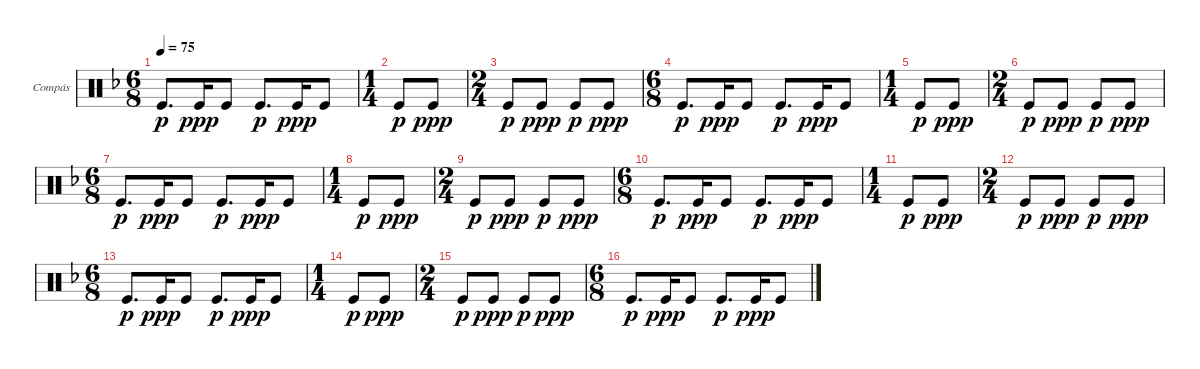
\defaultSystemsLayout 4
\bracketExtendMode groupsimilarinstruments
\firstSystemTrackNameOrientation horizontal
\otherSystemsTrackNameOrientation horizontal
\track ("Compás" "Compás") {instrument percussion}
\staff {score}
\articulation defaults
\ts (6 8)
\tempo 75
\clef neutral
\ks f "Kick (hit)".8{d dy p} "Kick (hit)".16{dy ppp} "Kick (hit)".8 "Kick (hit)".8{d dy p} "Kick (hit)".16{dy ppp} "Kick (hit)".8
|
\ts (1 4)
"Kick (hit)".8{dy p} "Kick (hit)".8{dy ppp} |
\ts (2 4)
"Kick (hit)".8{dy p} "Kick (hit)".8{dy ppp} "Kick (hit)".8{dy p} "Kick (hit)".8{dy ppp} |
\ts (6 8)
"Kick (hit)".8{d dy p} "Kick (hit)".16{dy ppp} "Kick (hit)".8 "Kick (hit)".8{d dy p} "Kick (hit)".16{dy ppp} "Kick (hit)".8 |
\ts (1 4)
"Kick (hit)".8{dy p} "Kick (hit)".8{dy ppp} |
\ts (2 4)
"Kick (hit)".8{dy p} "Kick (hit)".8{dy ppp} "Kick (hit)".8{dy p} "Kick (hit)".8{dy ppp} |
\ts (6 8)
"Kick (hit)".8{d dy p} "Kick (hit)".16{dy ppp} "Kick (hit)".8 "Kick (hit)".8{d dy p} "Kick (hit)".16{dy ppp} "Kick (hit)".8 |
\ts (1 4)
"Kick (hit)".8{dy p} "Kick (hit)".8{dy ppp} |
\ts (2 4)
"Kick (hit)".8{dy p} "Kick (hit)".8{dy ppp} "Kick (hit)".8{dy p} "Kick (hit)".8{dy ppp} |
\ts (6 8)
"Kick (hit)".8{d dy p} "Kick (hit)".16{dy ppp} "Kick (hit)".8 "Kick (hit)".8{d dy p} "Kick (hit)".16{dy ppp} "Kick (hit)".8 |
\ts (1 4)
"Kick (hit)".8{dy p} "Kick (hit)".8{dy ppp} |
\ts (2 4)
"Kick (hit)".8{dy p} "Kick (hit)".8{dy ppp} "Kick (hit)".8{dy p} "Kick (hit)".8{dy ppp} |
\ts (6 8)
"Kick (hit)".8{d dy p} "Kick (hit)".16{dy ppp} "Kick (hit)".8 "Kick (hit)".8{d dy p} "Kick (hit)".16{dy ppp} "Kick (hit)".8 |
\ts (1 4)
"Kick (hit)".8{dy p} "Kick (hit)".8{dy ppp} |
\ts (2 4)
"Kick (hit)".8{dy p} "Kick (hit)".8{dy ppp} "Kick (hit)".8{dy p} "Kick (hit)".8{dy ppp} |
\ts (6 8)
"Kick (hit)".8{d dy p} "Kick (hit)".16{dy ppp} "Kick (hit)".8 "Kick (hit)".8{d dy p} "Kick (hit)".16{dy ppp} "Kick (hit)".8
